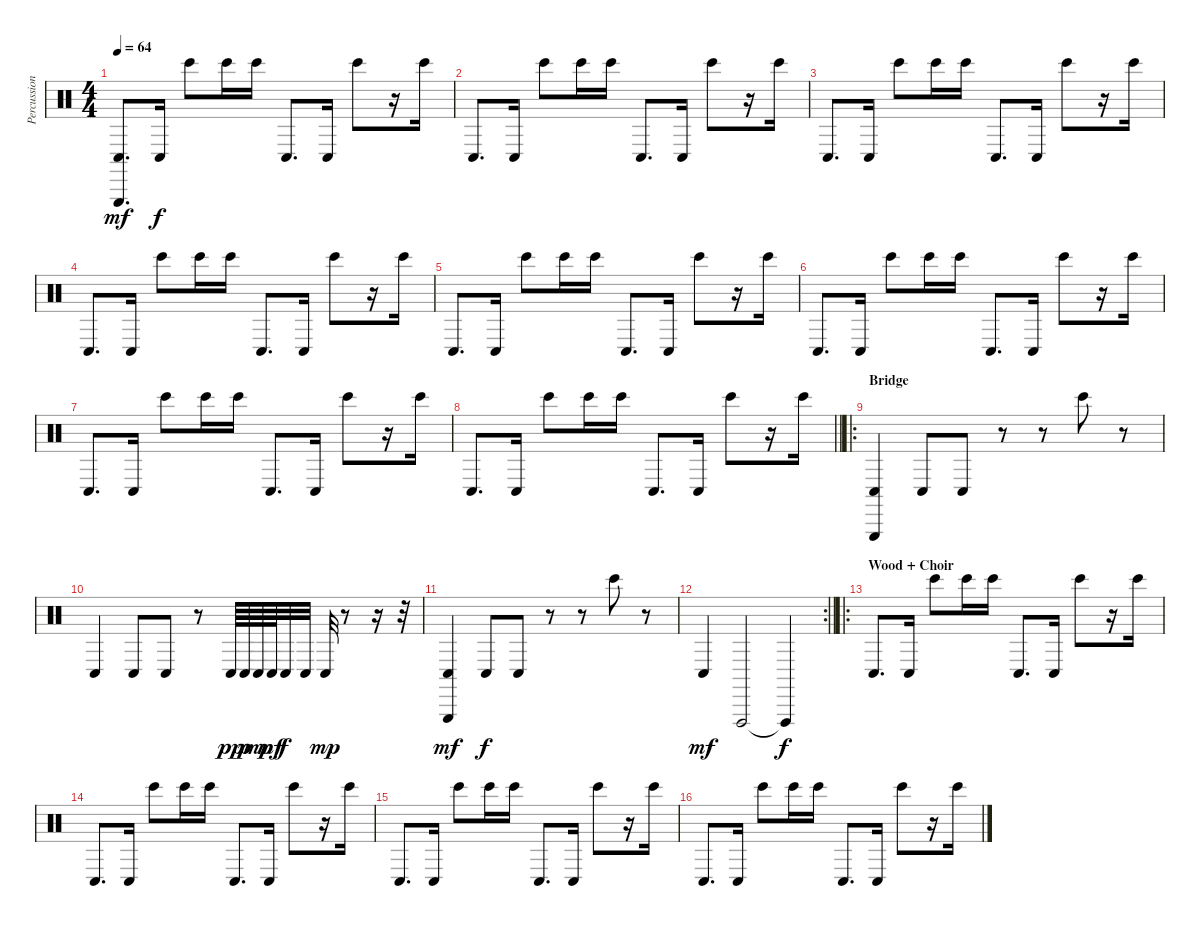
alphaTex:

\track ("Percussions" "Percussion") {instrument percussion}
\staff {score}
\articulation defaults
\ts (4 4)
\tempo 64
\clef neutral
\ks c
("Conga low (hit)" "Triangle (hit)").8{d dy mf} "Conga low (hit)".16{dy f} "Bongo High (hit)".8 "Bongo High (hit)".16 "Bongo High (hit)".16 "Conga low (hit)".8{d} "Conga low (hit)".16 "Bongo High (hit)".8 r.16 "Bongo High (hit)".16 |
"Conga low (hit)".8{d} "Conga low (hit)".16 "Bongo High (hit)".8 "Bongo High (hit)".16 "Bongo High (hit)".16 "Conga low (hit)".8{d} "Conga low (hit)".16 "Bongo High (hit)".8 r.16 "Bongo High (hit)".16 |
"Conga low (hit)".8{d} "Conga low (hit)".16 "Bongo High (hit)".8 "Bongo High (hit)".16 "Bongo High (hit)".16 "Conga low (hit)".8{d} "Conga low (hit)".16 "Bongo High (hit)".8 r.16 "Bongo High (hit)".16 |
"Conga low (hit)".8{d} "Conga low (hit)".16 "Bongo High (hit)".8 "Bongo High (hit)".16 "Bongo High (hit)".16 "Conga low (hit)".8{d} "Conga low (hit)".16 "Bongo High (hit)".8 r.16 "Bongo High (hit)".16 |
"Conga low (hit)".8{d} "Conga low (hit)".16 "Bongo High (hit)".8 "Bongo High (hit)".16 "Bongo High (hit)".16 "Conga low (hit)".8{d} "Conga low (hit)".16 "Bongo High (hit)".8 r.16 "Bongo High (hit)".16 |
"Conga low (hit)".8{d} "Conga low (hit)".16 "Bongo High (hit)".8 "Bongo High (hit)".16 "Bongo High (hit)".16 "Conga low (hit)".8{d} "Conga low (hit)".16 "Bongo High (hit)".8 r.16 "Bongo High (hit)".16 |
"Conga low (hit)".8{d} "Conga low (hit)".16 "Bongo High (hit)".8 "Bongo High (hit)".16 "Bongo High (hit)".16 "Conga low (hit)".8{d} "Conga low (hit)".16 "Bongo High (hit)".8 r.16 "Bongo High (hit)".16 |
\barLineRight lightlight "Conga low (hit)".8{d} "Conga low (hit)".16 "Bongo High (hit)".8 "Bongo High (hit)".16 "Bongo High (hit)".16 "Conga low (hit)".8{d} "Conga low (hit)".16 "Bongo High (hit)".8
r.16 "Bongo High (hit)".16 |
\ro
\section ("" "Bridge")
("Conga low (hit)" "Triangle (hit)").4 "Conga low (hit)".8 "Conga low (hit)".8 r.8 r.8 "Bongo High (hit)".8 r.8 |
"Conga low (hit)".4 "Conga low (hit)".8 "Conga low (hit)".8 r.8 "Conga low (hit)".64{dy pp} "Conga low (hit)".64{dy p} "Conga low (hit)".64{dy mp} "Conga low (hit)".64{dy mf} "Conga low (hit)".32{dy f} "Conga low (hit)".32 "Conga low (hit)".32{dy mp} r.8 r.16 r.32 |
("Conga low (hit)" "Triangle (hit)").4{dy mf} "Conga low (hit)".8{dy f} "Conga low (hit)".8 r.8 r.8 "Bongo High (hit)".8 r.8 |
\rc 2
\barLineRight lightlight "Conga low (hit)".4{dy mf} "Vibraslap (hit)".2 "Vibraslap (hit)"{t}.4{dy f}
|
\ro
\section ("" "Wood + Choir")
"Conga low (hit)".8{d} "Conga low (hit)".16 "Bongo High (hit)".8 "Bongo High (hit)".16 "Bongo High (hit)".16 "Conga low (hit)".8{d} "Conga low (hit)".16 "Bongo High (hit)".8 r.16 "Bongo High (hit)".16 |
"Conga low (hit)".8{d} "Conga low (hit)".16 "Bongo High (hit)".8 "Bongo High (hit)".16 "Bongo High (hit)".16 "Conga low (hit)".8{d} "Conga low (hit)".16 "Bongo High (hit)".8 r.16 "Bongo High (hit)".16 |
"Conga low (hit)".8{d} "Conga low (hit)".16 "Bongo High (hit)".8 "Bongo High (hit)".16 "Bongo High (hit)".16 "Conga low (hit)".8{d} "Conga low (hit)".16 "Bongo High (hit)".8 r.16 "Bongo High (hit)".16 |
"Conga low (hit)".8{d} "Conga low (hit)".16 "Bongo High (hit)".8 "Bongo High (hit)".16 "Bongo High (hit)".16 "Conga low (hit)".8{d} "Conga low (hit)".16 "Bongo High (hit)".8 r.16 "Bongo High (hit)".16
